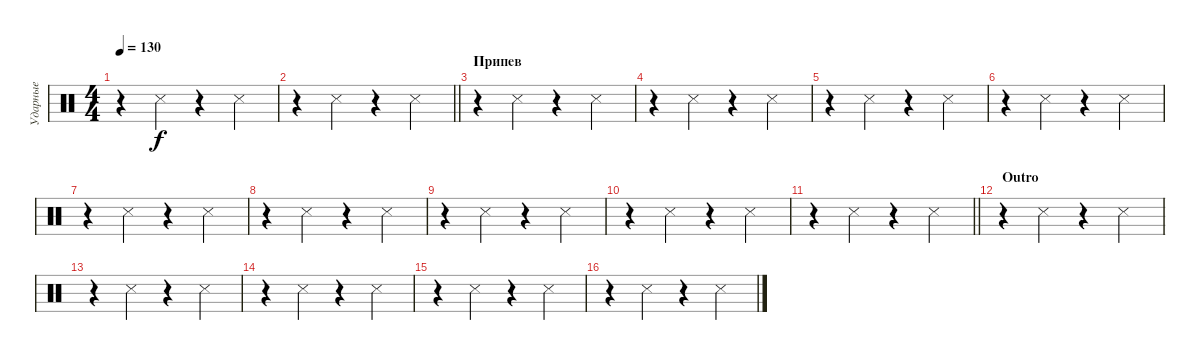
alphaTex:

\track ("Ударные" "Ударные") {instrument percussion}
\staff {score}
\articulation defaults
\ts (4 4)
\tempo 130
\clef neutral
\ks c
r.4{dy f} "Snare (side stick) 3".4 r.4 "Snare (side stick) 3".4 |
\barLineRight lightlight
r.4 "Snare (side stick) 3".4 r.4 "Snare (side stick) 3".4 |
\section ("" "Припев")
r.4 "Snare (side stick) 3".4 r.4 "Snare (side stick) 3".4 |
r.4 "Snare (side stick) 3".4 r.4 "Snare (side stick) 3".4 |
r.4 "Snare (side stick) 3".4 r.4 "Snare (side stick) 3".4 |
r.4 "Snare (side stick) 3".4 r.4 "Snare (side stick) 3".4 |
r.4 "Snare (side stick) 3".4 r.4 "Snare (side stick) 3".4 |
r.4 "Snare (side stick) 3".4 r.4 "Snare (side stick) 3".4 |
r.4 "Snare (side stick) 3".4 r.4 "Snare (side stick) 3".4 |
r.4 "Snare (side stick) 3".4 r.4 "Snare (side stick) 3".4 |
\barLineRight lightlight
r.4 "Snare (side stick) 3".4 r.4 "Snare (side stick) 3".4 |
\section ("" " Outro")
r.4 "Snare (side stick) 3".4 r.4 "Snare (side stick) 3".4 |
r.4 "Snare (side stick) 3".4 r.4 "Snare (side stick) 3".4 |
r.4 "Snare (side stick) 3".4 r.4 "Snare (side stick) 3".4 |
r.4 "Snare (side stick) 3".4 r.4 "Snare (side stick) 3".4 |
r.4 "Snare (side stick) 3".4 r.4 "Snare (side stick) 3".4
